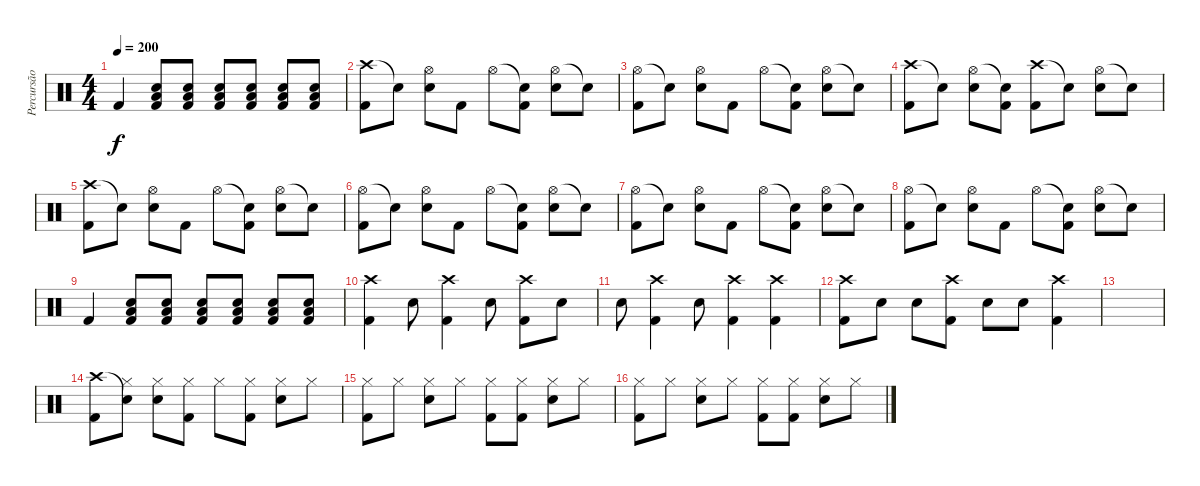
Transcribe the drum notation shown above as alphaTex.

\track ("Percursão" "Percursão") {instrument percussion}
\staff {score}
\articulation defaults
\ts (4 4)
\tempo 200
\clef neutral
\ks c "Kick (hit) 2".4{dy f}
("Electric Snare (hit)" "Low Tom (hit)" "Kick (hit) 2").8 ("Electric Snare (hit)" "Low Tom (hit)" "Kick (hit) 2").8 ("Electric Snare (hit)" "Low Tom (hit)" "Kick (hit) 2").8 ("Electric Snare (hit)" "Low Tom (hit)" "Kick (hit) 2").8 ("Electric Snare (hit)" "Low Tom (hit)" "Kick (hit) 2").8 ("Electric Snare (hit)" "Low Tom (hit)" "Kick (hit) 2").8 |
("Crash high (hit)" "Kick (hit) 2").8 "Snare (hit)"{t}.8 ("Hi-Hat (open)" "Electric Snare (hit)").8 "Kick (hit) 2".8 "Hi-Hat (open)".8 ("Snare (hit)"{t} "Kick (hit) 2").8 ("Hi-Hat (open)" "Electric Snare (hit)").8 "Snare (hit)"{t}.8 |
("Hi-Hat (open)" "Kick (hit) 2").8 "Snare (hit)"{t}.8 ("Hi-Hat (open)" "Electric Snare (hit)").8 "Kick (hit) 2".8 "Hi-Hat (open)".8 ("Snare (hit)"{t} "Kick (hit) 2").8 ("Hi-Hat (open)" "Electric Snare (hit)").8 "Snare (hit)"{t}.8 |
("Crash high (hit)" "Kick (hit) 2").8 "Snare (hit)"{t}.8 ("Hi-Hat (open)" "Electric Snare (hit)").8 ("Snare (hit)"{t} "Kick (hit) 2").8 ("Crash high (hit)" "Kick (hit) 2").8 "Snare (hit)"{t}.8 ("Hi-Hat (open)" "Electric Snare (hit)").8 "Snare (hit)"{t}.8 |
("Crash high (hit)" "Kick (hit) 2").8 "Snare (hit)"{t}.8 ("Hi-Hat (open)" "Electric Snare (hit)").8 "Kick (hit) 2".8 "Hi-Hat (open)".8 ("Snare (hit)"{t} "Kick (hit) 2").8 ("Hi-Hat (open)" "Electric Snare (hit)").8 "Snare (hit)"{t}.8 |
("Hi-Hat (open)" "Kick (hit) 2").8 "Snare (hit)"{t}.8 ("Hi-Hat (open)" "Electric Snare (hit)").8 "Kick (hit) 2".8 "Hi-Hat (open)".8 ("Snare (hit)"{t} "Kick (hit) 2").8 ("Hi-Hat (open)" "Electric Snare (hit)").8 "Snare (hit)"{t}.8 |
("Hi-Hat (open)" "Kick (hit) 2").8 "Snare (hit)"{t}.8 ("Hi-Hat (open)" "Electric Snare (hit)").8 "Kick (hit) 2".8 "Hi-Hat (open)".8 ("Snare (hit)"{t} "Kick (hit) 2").8 ("Hi-Hat (open)" "Electric Snare (hit)").8 "Snare (hit)"{t}.8 |
("Hi-Hat (open)" "Kick (hit) 2").8 "Snare (hit)"{t}.8 ("Hi-Hat (open)" "Electric Snare (hit)").8 "Kick (hit) 2".8 "Hi-Hat (open)".8 ("Snare (hit)"{t} "Kick (hit) 2").8 ("Hi-Hat (open)" "Electric Snare (hit)").8 "Snare (hit)"{t}.8 |
"Kick (hit) 2".4 ("Electric Snare (hit)" "Low Tom (hit)" "Kick (hit) 2").8 ("Electric Snare (hit)" "Low Tom (hit)" "Kick (hit) 2").8 ("Electric Snare (hit)" "Low Tom (hit)" "Kick (hit) 2").8 ("Electric Snare (hit)" "Low Tom (hit)" "Kick (hit) 2").8 ("Electric Snare (hit)" "Low Tom (hit)" "Kick (hit) 2").8 ("Electric Snare (hit)" "Low Tom (hit)" "Kick (hit) 2").8 |
("Crash high (hit)" "Kick (hit) 2").4 "Electric Snare (hit)".8 ("Crash high (hit)" "Kick (hit) 2").4 "Electric Snare (hit)".8 ("Crash high (hit)" "Kick (hit) 2").8 "Electric Snare (hit)".8 |
"Electric Snare (hit)".8 ("Crash high (hit)" "Kick (hit) 2").4 "Electric Snare (hit)".8 ("Crash high (hit)" "Kick (hit) 2").4 ("Crash high (hit)" "Kick (hit) 2").4 |
("Crash high (hit)" "Kick (hit) 2").8 "Electric Snare (hit)".8 "Electric Snare (hit)".8 ("Crash high (hit)" "Kick (hit) 2").8 "Electric Snare (hit)".8 "Electric Snare (hit)".8 ("Crash high (hit)" "Kick (hit) 2").4 |
|
("Crash high (hit)" "Kick (hit) 2").8 ("Snare (hit)"{t} "Hi-Hat (closed)").8 ("Hi-Hat (closed)" "Electric Snare (hit)").8 ("Hi-Hat (closed)" "Kick (hit) 2").8 "Hi-Hat (closed)".8 ("Hi-Hat (closed)" "Kick (hit) 2").8 ("Hi-Hat (closed)" "Electric Snare (hit)").8 "Hi-Hat (closed)".8 |
("Hi-Hat (closed)" "Kick (hit) 2").8 "Hi-Hat (closed)".8 ("Hi-Hat (closed)" "Electric Snare (hit)").8 "Hi-Hat (closed)".8 ("Hi-Hat (closed)" "Kick (hit) 2").8 ("Hi-Hat (closed)" "Kick (hit) 2").8 ("Hi-Hat (closed)" "Electric Snare (hit)").8 "Hi-Hat (closed)".8 |
("Hi-Hat (closed)" "Kick (hit) 2").8 "Hi-Hat (closed)".8 ("Hi-Hat (closed)" "Electric Snare (hit)").8 "Hi-Hat (closed)".8 ("Hi-Hat (closed)" "Kick (hit) 2").8 ("Hi-Hat (closed)" "Kick (hit) 2").8 ("Hi-Hat (closed)" "Electric Snare (hit)").8 "Hi-Hat (closed)".8
